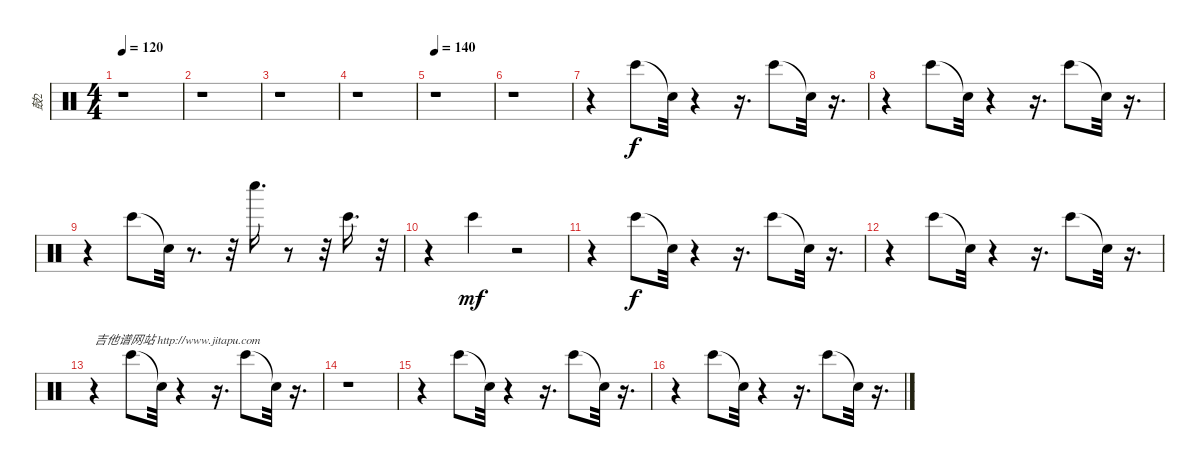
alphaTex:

\track ("鼓2" "鼓2") {instrument percussion}
\staff {score}
\articulation defaults
\ts (4 4)
\tempo 120
\clef neutral
\ks c
r.1{dy f} |
r.1 |
r.1 |
r.1 |
\tempo 140
r.1 |
r.1 |
r.4 "Bongo High (hit)".8 "Snare (hit)"{t}.32 r.4 r.16{d} "Bongo High (hit)".8 "Snare (hit)"{t}.32 r.16{d} |
r.4 "Bongo High (hit)".8 "Snare (hit)"{t}.32 r.4 r.16{d} "Bongo High (hit)".8 "Snare (hit)"{t}.32 r.16{d} |
r.4 "Bongo High (hit)".8 "Snare (hit)"{t}.32 r.8{d} r.32 "Whistle low (hit)".16{d} r.8 r.32 "Bongo High (hit)".16{d} r.32 |
r.4 "Bongo High (hit)".4{dy mf} r.2 |
r.4 "Bongo High (hit)".8{dy f} "Snare (hit)"{t}.32 r.4 r.16{d} "Bongo High (hit)".8 "Snare (hit)"{t}.32 r.16{d} |
r.4 "Bongo High (hit)".8 "Snare (hit)"{t}.32 r.4 r.16{d} "Bongo High (hit)".8 "Snare (hit)"{t}.32 r.16{d} |
r.4{txt "吉他谱网站 http://www.jitapu.com"} "Bongo High (hit)".8 "Snare (hit)"{t}.32 r.4 r.16{d} "Bongo High (hit)".8 "Snare (hit)"{t}.32 r.16{d} |
r.1 |
r.4 "Bongo High (hit)".8 "Snare (hit)"{t}.32 r.4 r.16{d} "Bongo High (hit)".8 "Snare (hit)"{t}.32 r.16{d} |
r.4 "Bongo High (hit)".8 "Snare (hit)"{t}.32 r.4 r.16{d} "Bongo High (hit)".8 "Snare (hit)"{t}.32 r.16{d}
